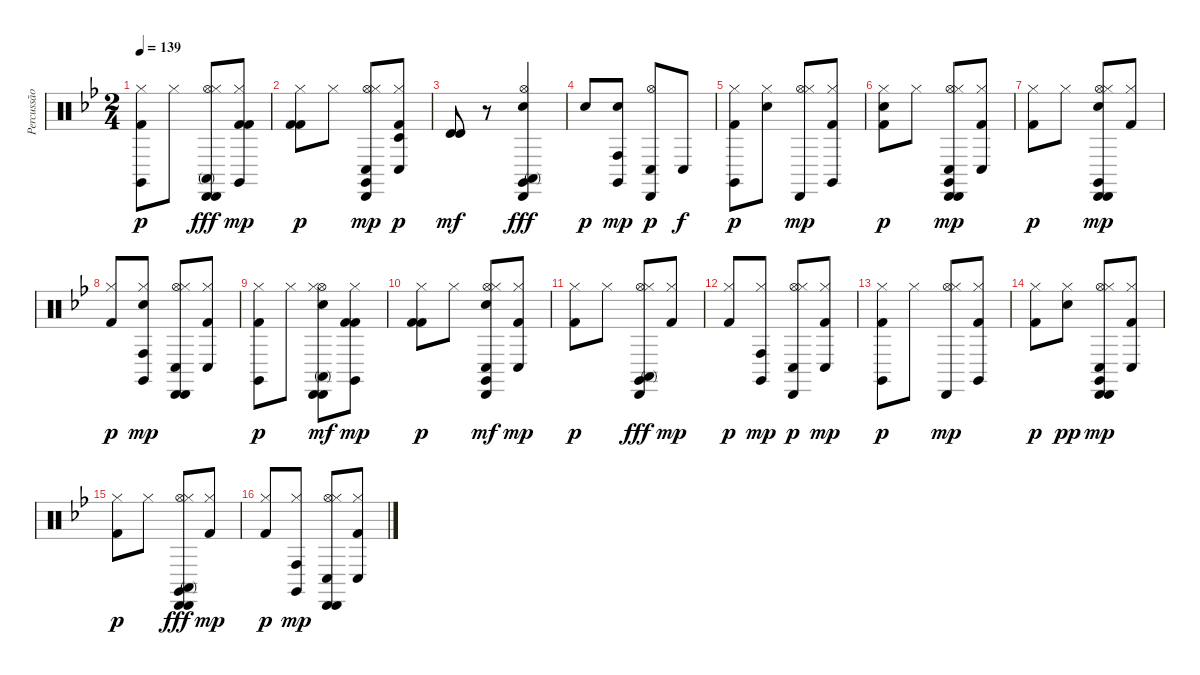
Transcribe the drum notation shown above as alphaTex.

\track ("Percussão" "Percussão") {instrument percussion}
\staff {score}
\articulation defaults
\ts (2 4)
\tempo 139
\clef neutral
\ks bb
("Kick (hit) 2" "Claves (hit)" "Hi-Hat (closed)").8{dy p} "Hi-Hat (closed)".8 ("Hi-Hat (open)" "Hi-Hat (closed)" "Cabasa (hit)" "Cabasa (hit)" "Conga high (mute)").8{dy fff} ("Hi-Hat (closed)" "Claves (hit)" "Kick (hit) 2" "Kick (hit) 2").8{dy mp} |
("Kick (hit) 2" "Kick (hit) 2" "Hi-Hat (closed)").8{dy p} "Hi-Hat (closed)".8 ("Hi-Hat (open)" "Hi-Hat (closed)" "Claves (hit)" "Conga low (hit)" "Cabasa (hit)").8{dy mp} ("Hi-Hat (closed)" "Conga low (hit)" "Kick (hit) 2" "Timbale low (hit)").8{dy p} |
("Timbale high (hit)" "Timbale high (hit)").8{dy mf} r.8 ("Hi-Hat (open)" "Claves (hit)" "Electric Snare (hit)" "Cabasa (hit)" "Conga high (mute)").4{dy fff} |
"Snare (hit)".8{dy p} ("Claves (hit)" "Electric Snare (hit)" "Conga high (hit)").8{dy mp} ("Hi-Hat (open)" "Conga low (hit)" "Cabasa (hit)").8{dy p} "Conga low (hit)".8{dy f} |
("Kick (hit) 2" "Claves (hit)" "Hi-Hat (closed)").8{dy p} ("Electric Snare (hit)" "Hi-Hat (closed)").8 ("Hi-Hat (open)" "Hi-Hat (closed)" "Cabasa (hit)").8{dy mp} ("Hi-Hat (closed)" "Claves (hit)" "Kick (hit) 2").8 |
("Electric Snare (hit)" "Kick (hit) 2" "Hi-Hat (closed)").8{dy p} "Hi-Hat (closed)".8 ("Hi-Hat (open)" "Hi-Hat (closed)" "Claves (hit)" "Conga low (hit)" "Cabasa (hit)" "Cabasa (hit)").8{dy mp} ("Hi-Hat (closed)" "Conga low (hit)" "Kick (hit) 2").8 |
("Kick (hit) 2" "Hi-Hat (closed)").8{dy p} "Hi-Hat (closed)".8 ("Hi-Hat (open)" "Hi-Hat (closed)" "Claves (hit)" "Electric Snare (hit)" "Cabasa (hit)" "Cabasa (hit)").8{dy mp} ("Hi-Hat (closed)" "Kick (hit) 2").8 |
("Kick (hit) 2" "Hi-Hat (closed)").8{dy p} ("Hi-Hat (closed)" "Claves (hit)" "Electric Snare (hit)" "Conga high (hit)").8{dy mp} ("Hi-Hat (open)" "Hi-Hat (closed)" "Conga low (hit)" "Cabasa (hit)" "Cabasa (hit)").8 ("Hi-Hat (closed)" "Conga low (hit)" "Kick (hit) 2").8 |
("Kick (hit) 2" "Claves (hit)" "Hi-Hat (closed)").8{dy p} "Hi-Hat (closed)".8 ("Hi-Hat (open)" "Hi-Hat (closed)" "Cabasa (hit)" "Cabasa (hit)" "Conga high (mute)" "Electric Snare (hit)").8{dy mf} ("Hi-Hat (closed)" "Claves (hit)" "Kick (hit) 2" "Kick (hit) 2").8{dy mp} |
("Kick (hit) 2" "Kick (hit) 2" "Hi-Hat (closed)").8{dy p} "Hi-Hat (closed)".8 ("Hi-Hat (open)" "Hi-Hat (closed)" "Claves (hit)" "Conga low (hit)" "Cabasa (hit)" "Electric Snare (hit)").8{dy mf} ("Hi-Hat (closed)" "Conga low (hit)" "Kick (hit) 2").8{dy mp} |
("Kick (hit) 2" "Hi-Hat (closed)").8{dy p} "Hi-Hat (closed)".8 ("Hi-Hat (open)" "Hi-Hat (closed)" "Claves (hit)" "Cabasa (hit)" "Conga high (mute)").8{dy fff} ("Hi-Hat (closed)" "Kick (hit) 2").8{dy mp} |
("Kick (hit) 2" "Hi-Hat (closed)").8{dy p} ("Hi-Hat (closed)" "Claves (hit)" "Conga high (hit)").8{dy mp} ("Hi-Hat (open)" "Hi-Hat (closed)" "Conga low (hit)" "Cabasa (hit)").8{dy p} ("Hi-Hat (closed)" "Conga low (hit)" "Kick (hit) 2").8{dy mp} |
("Kick (hit) 2" "Claves (hit)" "Hi-Hat (closed)").8{dy p} "Hi-Hat (closed)".8 ("Hi-Hat (open)" "Hi-Hat (closed)" "Cabasa (hit)").8{dy mp} ("Hi-Hat (closed)" "Claves (hit)" "Kick (hit) 2").8 |
("Kick (hit) 2" "Hi-Hat (closed)").8{dy p} ("Hi-Hat (closed)" "Electric Snare (hit)").8{dy pp} ("Hi-Hat (open)" "Hi-Hat (closed)" "Claves (hit)" "Conga low (hit)" "Cabasa (hit)" "Cabasa (hit)").8{dy mp} ("Hi-Hat (closed)" "Conga low (hit)" "Kick (hit) 2").8 |
("Kick (hit) 2" "Hi-Hat (closed)").8{dy p} "Hi-Hat (closed)".8 ("Hi-Hat (open)" "Hi-Hat (closed)" "Claves (hit)" "Cabasa (hit)" "Cabasa (hit)" "Conga high (mute)").8{dy fff} ("Hi-Hat (closed)" "Kick (hit) 2").8{dy mp} |
("Kick (hit) 2" "Hi-Hat (closed)").8{dy p} ("Hi-Hat (closed)" "Claves (hit)" "Conga high (hit)").8{dy mp} ("Hi-Hat (open)" "Hi-Hat (closed)" "Conga low (hit)" "Cabasa (hit)" "Cabasa (hit)").8 ("Hi-Hat (closed)" "Conga low (hit)" "Kick (hit) 2").8
